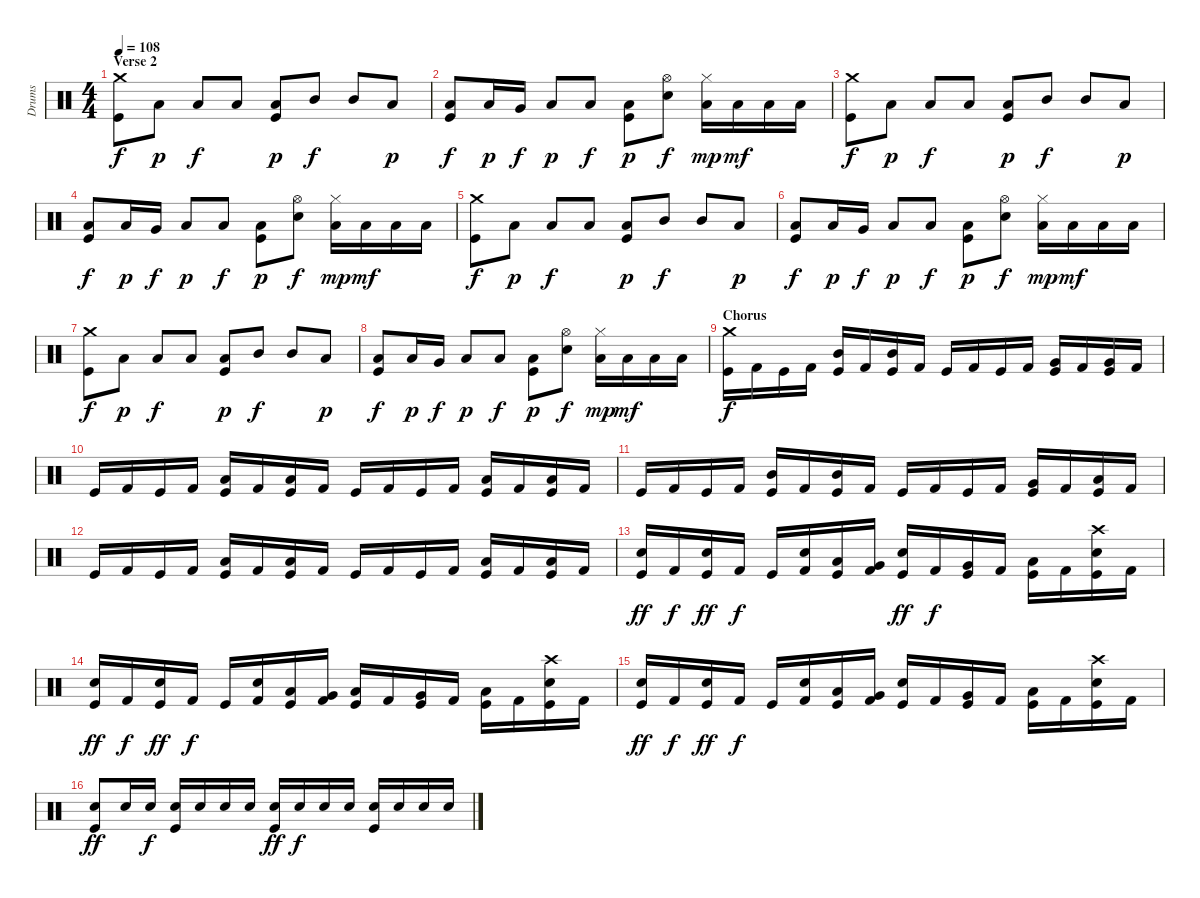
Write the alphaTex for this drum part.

\track ("Drums" "Drums") {instrument percussion}
\staff {score}
\articulation defaults
\ts (4 4)
\section ("" "Verse 2")
\tempo 108
\clef neutral
\ks c
("Crash medium (hit)" "Kick (hit)").8{dy f} "Low Floor Tom (hit)".8{dy p} "Low Tom (hit)".8{dy f} "Low Tom (hit)".8 ("Low Floor Tom (hit)" "Kick (hit)").8{dy p} "Mid Tom (hit)".8{dy f} "Mid Tom (hit)".8 "Low Floor Tom (hit)".8{dy p} |
("Low Tom (hit)" "Kick (hit)").8{dy f} "Low Floor Tom (hit)".16{dy p} "Very Low Tom (hit)".16{dy f} "Low Floor Tom (hit)".8{dy p} "Low Tom (hit)".8{dy f} ("Low Floor Tom (hit)" "Kick (hit)").8{dy p} ("Hi-Hat (open)" "Electric Snare (hit)").8{dy f} ("Hi-Hat (closed)" "Low Floor Tom (hit)").16{dy mp} "Low Floor Tom (hit)".16{dy mf} "Low Floor Tom (hit)".16 "Low Floor Tom (hit)".16 |
("Crash medium (hit)" "Kick (hit)").8{dy f} "Low Floor Tom (hit)".8{dy p} "Low Tom (hit)".8{dy f} "Low Tom (hit)".8 ("Low Floor Tom (hit)" "Kick (hit)").8{dy p} "Mid Tom (hit)".8{dy f} "Mid Tom (hit)".8 "Low Floor Tom (hit)".8{dy p} |
("Low Tom (hit)" "Kick (hit)").8{dy f} "Low Floor Tom (hit)".16{dy p} "Very Low Tom (hit)".16{dy f} "Low Floor Tom (hit)".8{dy p} "Low Tom (hit)".8{dy f} ("Low Floor Tom (hit)" "Kick (hit)").8{dy p} ("Hi-Hat (open)" "Electric Snare (hit)").8{dy f} ("Hi-Hat (closed)" "Low Floor Tom (hit)").16{dy mp} "Low Floor Tom (hit)".16{dy mf} "Low Floor Tom (hit)".16 "Low Floor Tom (hit)".16 |
("Crash medium (hit)" "Kick (hit)").8{dy f} "Low Floor Tom (hit)".8{dy p} "Low Tom (hit)".8{dy f} "Low Tom (hit)".8 ("Low Floor Tom (hit)" "Kick (hit)").8{dy p} "Mid Tom (hit)".8{dy f} "Mid Tom (hit)".8 "Low Floor Tom (hit)".8{dy p} |
("Low Tom (hit)" "Kick (hit)").8{dy f} "Low Floor Tom (hit)".16{dy p} "Very Low Tom (hit)".16{dy f} "Low Floor Tom (hit)".8{dy p} "Low Tom (hit)".8{dy f} ("Low Floor Tom (hit)" "Kick (hit)").8{dy p} ("Hi-Hat (open)" "Electric Snare (hit)").8{dy f} ("Hi-Hat (closed)" "Low Floor Tom (hit)").16{dy mp} "Low Floor Tom (hit)".16{dy mf} "Low Floor Tom (hit)".16 "Low Floor Tom (hit)".16 |
("Crash medium (hit)" "Kick (hit)").8{dy f} "Low Floor Tom (hit)".8{dy p} "Low Tom (hit)".8{dy f} "Low Tom (hit)".8 ("Low Floor Tom (hit)" "Kick (hit)").8{dy p} "Mid Tom (hit)".8{dy f} "Mid Tom (hit)".8 "Low Floor Tom (hit)".8{dy p} |
("Low Tom (hit)" "Kick (hit)").8{dy f} "Low Floor Tom (hit)".16{dy p} "Very Low Tom (hit)".16{dy f} "Low Floor Tom (hit)".8{dy p} "Low Tom (hit)".8{dy f} ("Low Floor Tom (hit)" "Kick (hit)").8{dy p} ("Hi-Hat (open)" "Electric Snare (hit)").8{dy f} ("Hi-Hat (closed)" "Low Floor Tom (hit)").16{dy mp} "Low Floor Tom (hit)".16{dy mf} "Low Floor Tom (hit)".16 "Low Floor Tom (hit)".16 |
\section ("" "Chorus")
("Crash medium (hit)" "Kick (hit)").16{dy f} "Kick (hit) 2".16 "Kick (hit)".16 "Kick (hit) 2".16 ("Mid Tom (hit)" "Kick (hit)").16 "Kick (hit) 2".16 ("Mid Tom (hit)" "Kick (hit)").16 "Kick (hit) 2".16 "Kick (hit)".16 "Kick (hit) 2".16 "Kick (hit)".16 "Kick (hit) 2".16 ("Very Low Tom (hit)" "Kick (hit)").16 "Kick (hit) 2".16 ("Very Low Tom (hit)" "Kick (hit)").16 "Kick (hit) 2".16 |
"Kick (hit)".16 "Kick (hit) 2".16 "Kick (hit)".16 "Kick (hit) 2".16 ("Low Tom (hit)" "Kick (hit)").16 "Kick (hit) 2".16 ("Low Tom (hit)" "Kick (hit)").16 "Kick (hit) 2".16 "Kick (hit)".16 "Kick (hit) 2".16 "Kick (hit)".16 "Kick (hit) 2".16 ("Low Floor Tom (hit)" "Kick (hit)").16 "Kick (hit) 2".16 ("Low Floor Tom (hit)" "Kick (hit)").16 "Kick (hit) 2".16 |
"Kick (hit)".16 "Kick (hit) 2".16 "Kick (hit)".16 "Kick (hit) 2".16 ("Mid Tom (hit)" "Kick (hit)").16 "Kick (hit) 2".16 ("Mid Tom (hit)" "Kick (hit)").16 "Kick (hit) 2".16 "Kick (hit)".16 "Kick (hit) 2".16 "Kick (hit)".16 "Kick (hit) 2".16 ("Very Low Tom (hit)" "Kick (hit)").16 "Kick (hit) 2".16 ("Low Floor Tom (hit)" "Kick (hit)").16 "Kick (hit) 2".16 |
"Kick (hit)".16 "Kick (hit) 2".16 "Kick (hit)".16 "Kick (hit) 2".16 ("Low Tom (hit)" "Kick (hit)").16 "Kick (hit) 2".16 ("Low Tom (hit)" "Kick (hit)").16 "Kick (hit) 2".16 "Kick (hit)".16 "Kick (hit) 2".16 "Kick (hit)".16 "Kick (hit) 2".16 ("Low Floor Tom (hit)" "Kick (hit)").16 "Kick (hit) 2".16 ("Low Floor Tom (hit)" "Kick (hit)").16 "Kick (hit) 2".16 |
("Electric Snare (hit)" "Kick (hit)").16{dy ff} "Kick (hit) 2".16{dy f} ("Electric Snare (hit)" "Kick (hit)").16{dy ff} "Kick (hit) 2".16{dy f} "Kick (hit)".16 ("Electric Snare (hit)" "Kick (hit) 2").16 ("Low Tom (hit)" "Kick (hit)").16 ("Very Low Tom (hit)" "Kick (hit) 2").16 ("Electric Snare (hit)" "Kick (hit)").16{dy ff} "Kick (hit) 2".16{dy f} ("Very Low Tom (hit)" "Kick (hit)").16 "Kick (hit) 2".16 ("Low Floor Tom (hit)" "Kick (hit)").16 "Kick (hit) 2".16 ("Crash high (hit)" "Electric Snare (hit)" "Kick (hit)").16 "Kick (hit) 2".16 |
("Electric Snare (hit)" "Kick (hit)").16{dy ff} "Kick (hit) 2".16{dy f} ("Electric Snare (hit)" "Kick (hit)").16{dy ff} "Kick (hit) 2".16{dy f} "Kick (hit)".16 ("Electric Snare (hit)" "Kick (hit) 2").16 ("Low Tom (hit)" "Kick (hit)").16 ("Very Low Tom (hit)" "Kick (hit) 2").16 ("Low Tom (hit)" "Kick (hit)").16 "Kick (hit) 2".16 ("Very Low Tom (hit)" "Kick (hit)").16 "Kick (hit) 2".16 ("Low Floor Tom (hit)" "Kick (hit)").16 "Kick (hit) 2".16 ("Crash high (hit)" "Electric Snare (hit)" "Kick (hit)").16 "Kick (hit) 2".16 |
("Electric Snare (hit)" "Kick (hit)").16{dy ff} "Kick (hit) 2".16{dy f} ("Electric Snare (hit)" "Kick (hit)").16{dy ff} "Kick (hit) 2".16{dy f} "Kick (hit)".16 ("Electric Snare (hit)" "Kick (hit) 2").16 ("Low Tom (hit)" "Kick (hit)").16 ("Very Low Tom (hit)" "Kick (hit) 2").16 ("Electric Snare (hit)" "Kick (hit)").16 "Kick (hit) 2".16 ("Very Low Tom (hit)" "Kick (hit)").16 "Kick (hit) 2".16 ("Low Floor Tom (hit)" "Kick (hit)").16 "Kick (hit) 2".16 ("Crash high (hit)" "Electric Snare (hit)" "Kick (hit)").16 "Kick (hit) 2".16 |
("Electric Snare (hit)" "Kick (hit)").8{dy ff} "Electric Snare (hit)".16 "Electric Snare (hit)".16{dy f} ("Electric Snare (hit)" "Kick (hit)").16 "Electric Snare (hit)".16 "Electric Snare (hit)".16 "Electric Snare (hit)".16 ("Electric Snare (hit)" "Kick (hit)").16{dy ff} "Electric Snare (hit)".16{dy f} "Electric Snare (hit)".16 "Electric Snare (hit)".16 ("Electric Snare (hit)" "Kick (hit)").16 "Electric Snare (hit)".16 "Electric Snare (hit)".16 "Electric Snare (hit)".16
